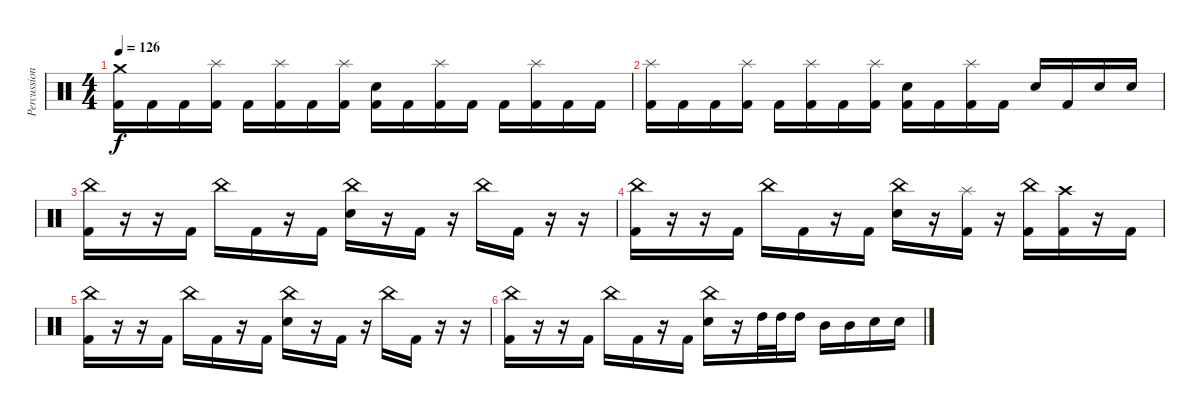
\track ("Percussion" "Percussion") {instrument percussion}
\staff {score}
\articulation defaults
\ts (4 4)
\tempo 126
\clef neutral
\ks c
("Crash medium (hit)" "Kick (hit) 2").16{dy f} "Kick (hit) 2".16 "Kick (hit) 2".16 ("Splash (hit)" "Kick (hit) 2").16 "Kick (hit) 2".16 ("Splash (hit)" "Kick (hit) 2").16 "Kick (hit) 2".16 ("Splash (hit)" "Kick (hit) 2").16 ("Electric Snare (hit)" "Kick (hit) 2").16 "Kick (hit) 2".16 ("Splash (hit)" "Kick (hit) 2").16 "Kick (hit) 2".16 "Kick (hit) 2".16 ("Splash (hit)" "Kick (hit) 2").16 "Kick (hit) 2".16 "Kick (hit) 2".16 |
("Splash (hit)" "Kick (hit) 2").16 "Kick (hit) 2".16 "Kick (hit) 2".16 ("Splash (hit)" "Kick (hit) 2").16 "Kick (hit) 2".16 ("Splash (hit)" "Kick (hit) 2").16 "Kick (hit) 2".16 ("Splash (hit)" "Kick (hit) 2").16 ("Electric Snare (hit)" "Kick (hit) 2").16 "Kick (hit) 2".16 ("Splash (hit)" "Kick (hit) 2").16 "Kick (hit) 2".16 "Electric Snare (hit)".16 "Kick (hit) 2".16 "Electric Snare (hit)".16 "Electric Snare (hit)".16 |
("China (hit)" "Kick (hit) 2").16 r.16 r.16 "Kick (hit) 2".16 "China (hit)".16 "Kick (hit) 2".16 r.16 "Kick (hit) 2".16 ("China (hit)" "Electric Snare (hit)").16 r.16 "Kick (hit) 2".16 r.16 "China (hit)".16 "Kick (hit) 2".16 r.16 r.16 |
("China (hit)" "Kick (hit) 2").16 r.16 r.16 "Kick (hit) 2".16 "China (hit)".16 "Kick (hit) 2".16 r.16 "Kick (hit) 2".16 ("China (hit)" "Electric Snare (hit)").16 r.16 ("Splash (hit)" "Kick (hit) 2").16 r.16 ("China (hit)" "Kick (hit) 2").16 ("Crash high (hit)" "Kick (hit) 2").16 r.16 "Kick (hit) 2".16 |
("China (hit)" "Kick (hit) 2").16 r.16 r.16 "Kick (hit) 2".16 "China (hit)".16 "Kick (hit) 2".16 r.16 "Kick (hit) 2".16 ("China (hit)" "Electric Snare (hit)").16 r.16 "Kick (hit) 2".16 r.16 "China (hit)".16 "Kick (hit) 2".16 r.16 r.16 |
("China (hit)" "Kick (hit) 2").16 r.16 r.16 "Kick (hit) 2".16 "China (hit)".16 "Kick (hit) 2".16 r.16 "Kick (hit) 2".16 ("China (hit)" "Electric Snare (hit)").16 r.16 "High Tom (hit)".32 "High Tom (hit)".32 "High Tom (hit)".16 "Mid Tom (hit)".16 "Mid Tom (hit)".16 "Electric Snare (hit)".16 "Electric Snare (hit)".16
